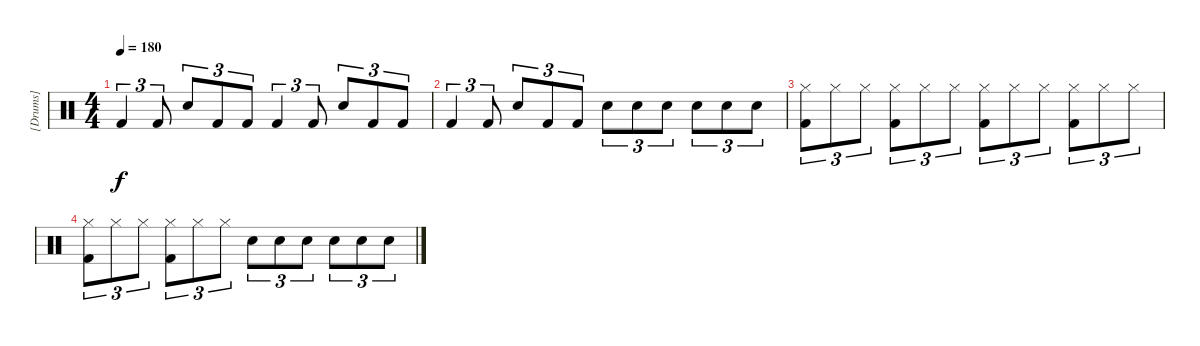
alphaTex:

\track ("[Drums]" "[Drums]") {instrument percussion}
\staff {score}
\articulation defaults
\ts (4 4)
\tempo 180
\clef neutral
\ks c "Kick (hit) 2".4{tu (3 2) dy f} "Kick (hit) 2".8{tu (3 2)} "Snare (hit) 2".8{tu (3 2)} "Kick (hit) 2".8{tu (3 2)} "Kick (hit) 2".8{tu (3 2)} "Kick (hit) 2".4{tu (3 2)} "Kick (hit) 2".8{tu (3 2)} "Snare (hit) 2".8{tu (3 2)} "Kick (hit) 2".8{tu (3 2)} "Kick (hit) 2".8{tu (3 2)}
|
"Kick (hit) 2".4{tu (3 2)} "Kick (hit) 2".8{tu (3 2)} "Snare (hit) 2".8{tu (3 2)} "Kick (hit) 2".8{tu (3 2)} "Kick (hit) 2".8{tu (3 2)} "Snare (hit) 2".8{tu (3 2)} "Snare (hit) 2".8{tu (3 2)} "Snare (hit) 2".8{tu (3 2)} "Snare (hit) 2".8{tu (3 2)} "Snare (hit) 2".8{tu (3 2)} "Snare (hit) 2".8{tu (3 2)} |
("Hi-Hat (closed)" "Kick (hit) 2").8{tu (3 2)} "Hi-Hat (closed)".8{tu (3 2)} "Hi-Hat (closed)".8{tu (3 2)} ("Hi-Hat (closed)" "Kick (hit) 2").8{tu (3 2)} "Hi-Hat (closed)".8{tu (3 2)} "Hi-Hat (closed)".8{tu (3 2)} ("Hi-Hat (closed)" "Kick (hit) 2").8{tu (3 2)} "Hi-Hat (closed)".8{tu (3 2)} "Hi-Hat (closed)".8{tu (3 2)} ("Hi-Hat (closed)" "Kick (hit) 2").8{tu (3 2)} "Hi-Hat (closed)".8{tu (3 2)} "Hi-Hat (closed)".8{tu (3 2)} |
("Hi-Hat (closed)" "Kick (hit) 2").8{tu (3 2)} "Hi-Hat (closed)".8{tu (3 2)} "Hi-Hat (closed)".8{tu (3 2)} ("Hi-Hat (closed)" "Kick (hit) 2").8{tu (3 2)} "Hi-Hat (closed)".8{tu (3 2)} "Hi-Hat (closed)".8{tu (3 2)} "Snare (hit) 2".8{tu (3 2)} "Snare (hit) 2".8{tu (3 2)} "Snare (hit) 2".8{tu (3 2)} "Snare (hit) 2".8{tu (3 2)} "Snare (hit) 2".8{tu (3 2)} "Snare (hit) 2".8{tu (3 2)}
